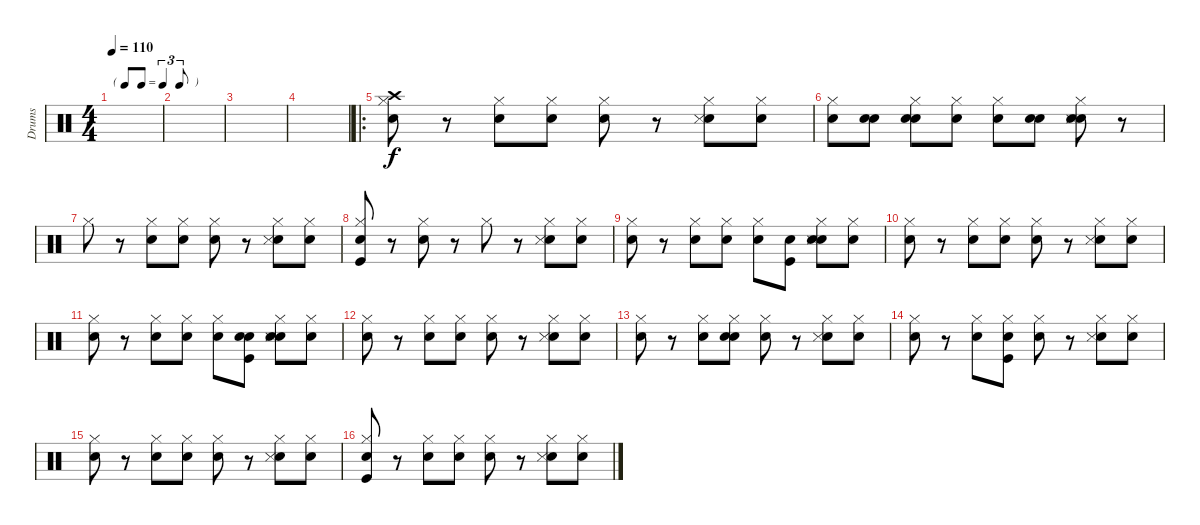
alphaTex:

\track ("Drums " "Drums ") {instrument percussion}
\staff {score}
\articulation defaults
\ts (4 4)
\tf triplet8th
\tempo 110
\clef neutral
\ks c
|
|
|
|
\ro
("Snare (hit) 2" "Hi-Hat (closed)" "Crash high (hit)").8 r.8 ("Snare (hit) 2" "Hi-Hat (closed)").8 ("Snare (hit)" "Hi-Hat (closed)").8 ("Snare (hit)" "Hi-Hat (closed)").8 r.8 ("Snare (hit) 2" "Hi-Hat (closed)" "Snare (side stick) 3").8 ("Snare (hit)" "Hi-Hat (closed)").8 |
("Snare (hit)" "Hi-Hat (closed)").8 ("Snare (hit)" "Snare (hit) 2").8 ("Snare (hit)" "Snare (hit) 2" "Hi-Hat (closed)").8 ("Snare (hit)" "Hi-Hat (closed)").8 ("Snare (hit)" "Hi-Hat (closed)").8 ("Snare (hit)" "Snare (hit) 2").8 ("Snare (hit)" "Snare (hit) 2" "Hi-Hat (closed)" "Snare (side stick) 3").8 r.8 |
"Hi-Hat (closed)".8 r.8 ("Snare (hit) 2" "Hi-Hat (closed)").8 ("Snare (hit)" "Hi-Hat (closed)").8 ("Snare (hit)" "Hi-Hat (closed)").8 r.8 ("Snare (hit) 2" "Hi-Hat (closed)" "Snare (side stick) 3").8 ("Snare (hit)" "Hi-Hat (closed)").8 |
("Snare (hit)" "Kick (hit)" "Hi-Hat (closed)").8 r.8 ("Snare (hit) 2" "Hi-Hat (closed)").8 r.8 "Hi-Hat (closed)".8 r.8 ("Snare (hit) 2" "Hi-Hat (closed)" "Snare (side stick) 3").8 ("Snare (hit)" "Hi-Hat (closed)").8 |
("Snare (hit)" "Hi-Hat (closed)").8 r.8 ("Snare (hit) 2" "Hi-Hat (closed)").8 ("Snare (hit)" "Hi-Hat (closed)").8 ("Snare (hit)" "Hi-Hat (closed)").8 ("Snare (hit)" "Kick (hit)").8 ("Snare (hit)" "Snare (hit) 2" "Hi-Hat (closed)" "Snare (side stick) 3").8 ("Snare (hit)" "Hi-Hat (closed)").8 |
("Snare (hit)" "Hi-Hat (closed)").8 r.8 ("Snare (hit) 2" "Hi-Hat (closed)").8 ("Snare (hit)" "Hi-Hat (closed)").8 ("Snare (hit)" "Hi-Hat (closed)").8 r.8 ("Snare (hit) 2" "Hi-Hat (closed)" "Snare (side stick) 3").8 ("Snare (hit)" "Hi-Hat (closed)").8 |
("Snare (hit)" "Hi-Hat (closed)").8 r.8 ("Snare (hit) 2" "Hi-Hat (closed)").8 ("Snare (hit)" "Hi-Hat (closed)").8 ("Snare (hit)" "Hi-Hat (closed)").8 ("Snare (hit)" "Kick (hit)" "Snare (hit) 2").8 ("Snare (hit)" "Snare (hit) 2" "Hi-Hat (closed)" "Snare (side stick) 3").8 ("Snare (hit)" "Hi-Hat (closed)").8 |
("Snare (hit)" "Hi-Hat (closed)").8 r.8 ("Snare (hit) 2" "Hi-Hat (closed)").8 ("Snare (hit)" "Hi-Hat (closed)").8 ("Snare (hit)" "Hi-Hat (closed)").8 r.8 ("Snare (hit) 2" "Hi-Hat (closed)" "Snare (side stick) 3").8 ("Snare (hit)" "Hi-Hat (closed)").8 |
("Snare (hit)" "Hi-Hat (closed)").8 r.8 ("Snare (hit) 2" "Hi-Hat (closed)").8 ("Snare (hit)" "Snare (hit) 2" "Hi-Hat (closed)").8 ("Snare (hit)" "Hi-Hat (closed)").8 r.8 ("Snare (hit) 2" "Hi-Hat (closed)" "Snare (side stick) 3").8 ("Snare (hit)" "Hi-Hat (closed)").8 |
("Snare (hit)" "Hi-Hat (closed)").8 r.8 ("Snare (hit) 2" "Hi-Hat (closed)").8 ("Snare (hit)" "Kick (hit)" "Hi-Hat (closed)").8 ("Snare (hit)" "Hi-Hat (closed)").8 r.8 ("Snare (hit) 2" "Hi-Hat (closed)" "Snare (side stick) 3").8 ("Snare (hit)" "Hi-Hat (closed)").8 |
("Snare (hit)" "Hi-Hat (closed)").8 r.8 ("Snare (hit) 2" "Hi-Hat (closed)").8 ("Snare (hit)" "Hi-Hat (closed)").8 ("Snare (hit)" "Hi-Hat (closed)").8 r.8 ("Snare (hit) 2" "Hi-Hat (closed)" "Snare (side stick) 3").8 ("Snare (hit)" "Hi-Hat (closed)").8 |
("Snare (hit)" "Kick (hit)" "Hi-Hat (closed)").8 r.8 ("Snare (hit) 2" "Hi-Hat (closed)").8 ("Snare (hit)" "Hi-Hat (closed)").8 ("Snare (hit)" "Hi-Hat (closed)").8 r.8 ("Snare (hit) 2" "Hi-Hat (closed)" "Snare (side stick) 3").8 ("Snare (hit)" "Hi-Hat (closed)").8
